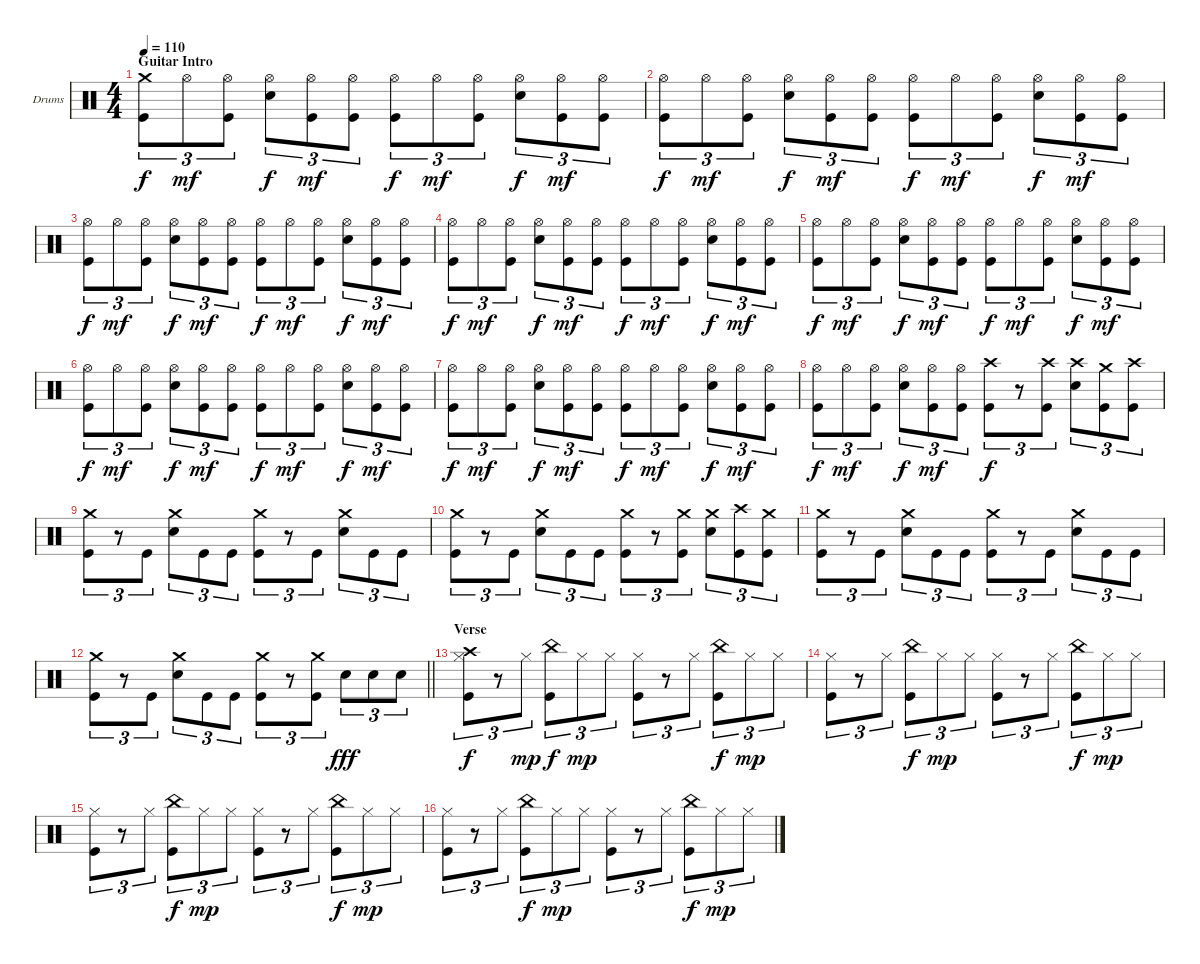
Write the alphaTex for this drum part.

\bracketExtendMode groupsimilarinstruments
\firstSystemTrackNameOrientation horizontal
\otherSystemsTrackNameOrientation horizontal
\track ("Drumkit" "Drums") {instrument percussion}
\staff {score}
\articulation defaults
\ts (4 4)
\section ("" "Guitar Intro")
\tempo 110
\clef neutral
\ks c
("Crash medium (hit)" "Kick (hit)").8{tu (3 2) dy f} "Hi-Hat (open)".8{tu (3 2) dy mf} ("Hi-Hat (open)" "Kick (hit)").8{tu (3 2)} ("Hi-Hat (open)" "Snare (hit) 2").8{tu (3 2) dy f} ("Hi-Hat (open)" "Kick (hit)").8{tu (3 2) dy mf} ("Hi-Hat (open)" "Kick (hit)").8{tu (3 2)} ("Hi-Hat (open)" "Kick (hit)").8{tu (3 2) dy f} "Hi-Hat (open)".8{tu (3 2) dy mf} ("Hi-Hat (open)" "Kick (hit)").8{tu (3 2)} ("Hi-Hat (open)" "Snare (hit) 2").8{tu (3 2) dy f} ("Hi-Hat (open)" "Kick (hit)").8{tu (3 2) dy mf} ("Hi-Hat (open)" "Kick (hit)").8{tu (3 2)} |
("Hi-Hat (open)" "Kick (hit)").8{tu (3 2) dy f} "Hi-Hat (open)".8{tu (3 2) dy mf} ("Hi-Hat (open)" "Kick (hit)").8{tu (3 2)} ("Hi-Hat (open)" "Snare (hit) 2").8{tu (3 2) dy f} ("Hi-Hat (open)" "Kick (hit)").8{tu (3 2) dy mf} ("Hi-Hat (open)" "Kick (hit)").8{tu (3 2)} ("Hi-Hat (open)" "Kick (hit)").8{tu (3 2) dy f} "Hi-Hat (open)".8{tu (3 2) dy mf} ("Hi-Hat (open)" "Kick (hit)").8{tu (3 2)} ("Hi-Hat (open)" "Snare (hit) 2").8{tu (3 2) dy f} ("Hi-Hat (open)" "Kick (hit)").8{tu (3 2) dy mf} ("Hi-Hat (open)" "Kick (hit)").8{tu (3 2)} |
("Hi-Hat (open)" "Kick (hit)").8{tu (3 2) dy f} "Hi-Hat (open)".8{tu (3 2) dy mf} ("Hi-Hat (open)" "Kick (hit)").8{tu (3 2)} ("Hi-Hat (open)" "Snare (hit) 2").8{tu (3 2) dy f} ("Hi-Hat (open)" "Kick (hit)").8{tu (3 2) dy mf} ("Hi-Hat (open)" "Kick (hit)").8{tu (3 2)} ("Hi-Hat (open)" "Kick (hit)").8{tu (3 2) dy f} "Hi-Hat (open)".8{tu (3 2) dy mf} ("Hi-Hat (open)" "Kick (hit)").8{tu (3 2)} ("Hi-Hat (open)" "Snare (hit) 2").8{tu (3 2) dy f} ("Hi-Hat (open)" "Kick (hit)").8{tu (3 2) dy mf} ("Hi-Hat (open)" "Kick (hit)").8{tu (3 2)} |
("Hi-Hat (open)" "Kick (hit)").8{tu (3 2) dy f} "Hi-Hat (open)".8{tu (3 2) dy mf} ("Hi-Hat (open)" "Kick (hit)").8{tu (3 2)} ("Hi-Hat (open)" "Snare (hit) 2").8{tu (3 2) dy f} ("Hi-Hat (open)" "Kick (hit)").8{tu (3 2) dy mf} ("Hi-Hat (open)" "Kick (hit)").8{tu (3 2)} ("Hi-Hat (open)" "Kick (hit)").8{tu (3 2) dy f} "Hi-Hat (open)".8{tu (3 2) dy mf} ("Hi-Hat (open)" "Kick (hit)").8{tu (3 2)} ("Hi-Hat (open)" "Snare (hit) 2").8{tu (3 2) dy f} ("Hi-Hat (open)" "Kick (hit)").8{tu (3 2) dy mf} ("Hi-Hat (open)" "Kick (hit)").8{tu (3 2)} |
("Hi-Hat (open)" "Kick (hit)").8{tu (3 2) dy f} "Hi-Hat (open)".8{tu (3 2) dy mf} ("Hi-Hat (open)" "Kick (hit)").8{tu (3 2)} ("Hi-Hat (open)" "Snare (hit) 2").8{tu (3 2) dy f} ("Hi-Hat (open)" "Kick (hit)").8{tu (3 2) dy mf} ("Hi-Hat (open)" "Kick (hit)").8{tu (3 2)} ("Hi-Hat (open)" "Kick (hit)").8{tu (3 2) dy f} "Hi-Hat (open)".8{tu (3 2) dy mf} ("Hi-Hat (open)" "Kick (hit)").8{tu (3 2)} ("Hi-Hat (open)" "Snare (hit) 2").8{tu (3 2) dy f} ("Hi-Hat (open)" "Kick (hit)").8{tu (3 2) dy mf} ("Hi-Hat (open)" "Kick (hit)").8{tu (3 2)} |
("Hi-Hat (open)" "Kick (hit)").8{tu (3 2) dy f} "Hi-Hat (open)".8{tu (3 2) dy mf} ("Hi-Hat (open)" "Kick (hit)").8{tu (3 2)} ("Hi-Hat (open)" "Snare (hit) 2").8{tu (3 2) dy f} ("Hi-Hat (open)" "Kick (hit)").8{tu (3 2) dy mf} ("Hi-Hat (open)" "Kick (hit)").8{tu (3 2)} ("Hi-Hat (open)" "Kick (hit)").8{tu (3 2) dy f} "Hi-Hat (open)".8{tu (3 2) dy mf} ("Hi-Hat (open)" "Kick (hit)").8{tu (3 2)} ("Hi-Hat (open)" "Snare (hit) 2").8{tu (3 2) dy f} ("Hi-Hat (open)" "Kick (hit)").8{tu (3 2) dy mf} ("Hi-Hat (open)" "Kick (hit)").8{tu (3 2)} |
("Hi-Hat (open)" "Kick (hit)").8{tu (3 2) dy f} "Hi-Hat (open)".8{tu (3 2) dy mf} ("Hi-Hat (open)" "Kick (hit)").8{tu (3 2)} ("Hi-Hat (open)" "Snare (hit) 2").8{tu (3 2) dy f} ("Hi-Hat (open)" "Kick (hit)").8{tu (3 2) dy mf} ("Hi-Hat (open)" "Kick (hit)").8{tu (3 2)} ("Hi-Hat (open)" "Kick (hit)").8{tu (3 2) dy f} "Hi-Hat (open)".8{tu (3 2) dy mf} ("Hi-Hat (open)" "Kick (hit)").8{tu (3 2)} ("Hi-Hat (open)" "Snare (hit) 2").8{tu (3 2) dy f} ("Hi-Hat (open)" "Kick (hit)").8{tu (3 2) dy mf} ("Hi-Hat (open)" "Kick (hit)").8{tu (3 2)} |
("Hi-Hat (open)" "Kick (hit)").8{tu (3 2) dy f} "Hi-Hat (open)".8{tu (3 2) dy mf} ("Hi-Hat (open)" "Kick (hit)").8{tu (3 2)} ("Hi-Hat (open)" "Snare (hit) 2").8{tu (3 2) dy f} ("Hi-Hat (open)" "Kick (hit)").8{tu (3 2) dy mf} ("Hi-Hat (open)" "Kick (hit)").8{tu (3 2)} ("Crash high (hit)" "Kick (hit)").8{tu (3 2) dy f} r.8{tu (3 2)} ("Crash high (hit)" "Kick (hit)").8{tu (3 2)} ("Crash high (hit)" "Snare (hit) 2").8{tu (3 2)} ("Crash medium (hit)" "Kick (hit)").8{tu (3 2)} ("Crash high (hit)" "Kick (hit)").8{tu (3 2)} |
("Crash medium (hit)" "Kick (hit)").8{tu (3 2)} r.8{tu (3 2)} "Kick (hit)".8{tu (3 2)} ("Crash medium (hit)" "Snare (hit) 2").8{tu (3 2)} "Kick (hit)".8{tu (3 2)} "Kick (hit)".8{tu (3 2)} ("Crash medium (hit)" "Kick (hit)").8{tu (3 2)} r.8{tu (3 2)} "Kick (hit)".8{tu (3 2)} ("Crash medium (hit)" "Snare (hit) 2").8{tu (3 2)} "Kick (hit)".8{tu (3 2)} "Kick (hit)".8{tu (3 2)} |
("Crash medium (hit)" "Kick (hit)").8{tu (3 2)} r.8{tu (3 2)} "Kick (hit)".8{tu (3 2)} ("Crash medium (hit)" "Snare (hit) 2").8{tu (3 2)} "Kick (hit)".8{tu (3 2)} "Kick (hit)".8{tu (3 2)} ("Crash medium (hit)" "Kick (hit)").8{tu (3 2)} r.8{tu (3 2)} ("Crash medium (hit)" "Kick (hit)").8{tu (3 2)} ("Crash medium (hit)" "Snare (hit) 2").8{tu (3 2)} ("Crash high (hit)" "Kick (hit)").8{tu (3 2)} ("Crash medium (hit)" "Kick (hit)").8{tu (3 2)} |
("Crash medium (hit)" "Kick (hit)").8{tu (3 2)} r.8{tu (3 2)} "Kick (hit)".8{tu (3 2)} ("Crash medium (hit)" "Snare (hit) 2").8{tu (3 2)} "Kick (hit)".8{tu (3 2)} "Kick (hit)".8{tu (3 2)} ("Crash medium (hit)" "Kick (hit)").8{tu (3 2)} r.8{tu (3 2)} "Kick (hit)".8{tu (3 2)} ("Crash medium (hit)" "Snare (hit) 2").8{tu (3 2)} "Kick (hit)".8{tu (3 2)} "Kick (hit)".8{tu (3 2)} |
\barLineRight lightlight
("Crash medium (hit)" "Kick (hit)").8{tu (3 2)} r.8{tu (3 2)} "Kick (hit)".8{tu (3 2)} ("Crash medium (hit)" "Snare (hit) 2").8{tu (3 2)} "Kick (hit)".8{tu (3 2)} "Kick (hit)".8{tu (3 2)} ("Crash medium (hit)" "Kick (hit)").8{tu (3 2)} r.8{tu (3 2)} ("Crash medium (hit)" "Kick (hit)").8{tu (3 2)} "Snare (hit) 2".8{tu (3 2) dy fff} "Snare (hit) 2".8{tu (3 2)} "Snare (hit) 2".8{tu (3 2)} |
\section ("" "Verse")
("Crash high (hit)" "Hi-Hat (closed)" "Kick (hit)").8{tu (3 2) dy f} r.8{tu (3 2)} "Hi-Hat (closed)".8{tu (3 2) dy mp} ("China (hit)" "Kick (hit)").8{tu (3 2) dy f} "Hi-Hat (closed)".8{tu (3 2) dy mp} "Hi-Hat (closed)".8{tu (3 2)} ("Hi-Hat (closed)" "Kick (hit)").8{tu (3 2)} r.8{tu (3 2)} "Hi-Hat (closed)".8{tu (3 2)} ("China (hit)" "Kick (hit)").8{tu (3 2) dy f} "Hi-Hat (closed)".8{tu (3 2) dy mp} "Hi-Hat (closed)".8{tu (3 2)} |
("Hi-Hat (closed)" "Kick (hit)").8{tu (3 2)} r.8{tu (3 2)} "Hi-Hat (closed)".8{tu (3 2)} ("China (hit)" "Kick (hit)").8{tu (3 2) dy f} "Hi-Hat (closed)".8{tu (3 2) dy mp} "Hi-Hat (closed)".8{tu (3 2)} ("Hi-Hat (closed)" "Kick (hit)").8{tu (3 2)} r.8{tu (3 2)} "Hi-Hat (closed)".8{tu (3 2)} ("China (hit)" "Kick (hit)").8{tu (3 2) dy f} "Hi-Hat (closed)".8{tu (3 2) dy mp} "Hi-Hat (closed)".8{tu (3 2)} |
("Hi-Hat (closed)" "Kick (hit)").8{tu (3 2)} r.8{tu (3 2)} "Hi-Hat (closed)".8{tu (3 2)} ("China (hit)" "Kick (hit)").8{tu (3 2) dy f} "Hi-Hat (closed)".8{tu (3 2) dy mp} "Hi-Hat (closed)".8{tu (3 2)} ("Hi-Hat (closed)" "Kick (hit)").8{tu (3 2)} r.8{tu (3 2)} "Hi-Hat (closed)".8{tu (3 2)} ("China (hit)" "Kick (hit)").8{tu (3 2) dy f} "Hi-Hat (closed)".8{tu (3 2) dy mp} "Hi-Hat (closed)".8{tu (3 2)} |
("Hi-Hat (closed)" "Kick (hit)").8{tu (3 2)} r.8{tu (3 2)} "Hi-Hat (closed)".8{tu (3 2)} ("China (hit)" "Kick (hit)").8{tu (3 2) dy f} "Hi-Hat (closed)".8{tu (3 2) dy mp} "Hi-Hat (closed)".8{tu (3 2)} ("Hi-Hat (closed)" "Kick (hit)").8{tu (3 2)} r.8{tu (3 2)} "Hi-Hat (closed)".8{tu (3 2)} ("China (hit)" "Kick (hit)").8{tu (3 2) dy f} "Hi-Hat (closed)".8{tu (3 2) dy mp} "Hi-Hat (closed)".8{tu (3 2)}
